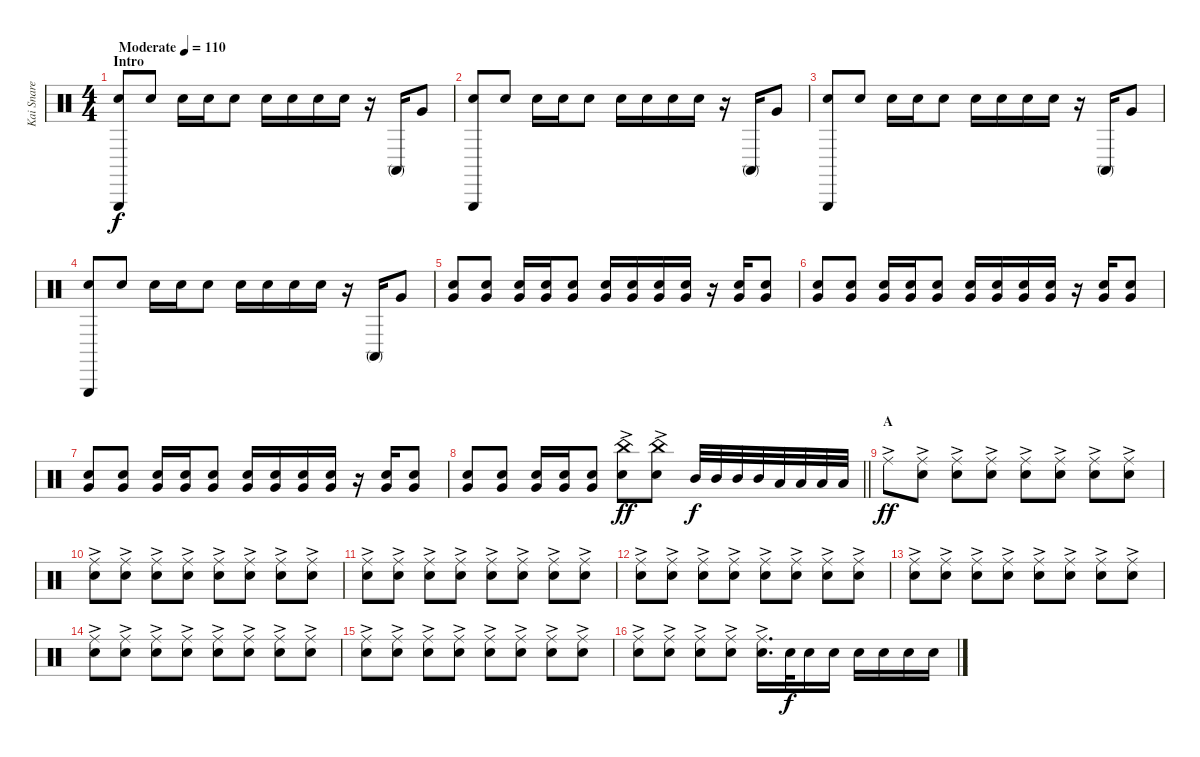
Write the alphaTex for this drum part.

\track ("Kai Snare" "Kai Snare") {instrument percussion}
\staff {score}
\articulation defaults
\ts (4 4)
\section ("" "Intro")
\tempo (110 "Moderate")
\clef neutral
\ks c
("Triangle (hit)" "Snare (hit) 2").8{dy f} "Snare (hit) 2".8 "Snare (hit) 2".16 "Snare (hit) 2".16 "Snare (hit) 2".8 "Snare (hit) 2".16 "Snare (hit) 2".16 "Snare (hit) 2".16 "Snare (hit) 2".16 r.16 "Conga high (mute)".16 "Very Low Tom (hit)".8 |
("Triangle (hit)" "Snare (hit) 2").8 "Snare (hit) 2".8 "Snare (hit) 2".16 "Snare (hit) 2".16 "Snare (hit) 2".8 "Snare (hit) 2".16 "Snare (hit) 2".16 "Snare (hit) 2".16 "Snare (hit) 2".16 r.16 "Conga high (mute)".16 "Very Low Tom (hit)".8 |
("Triangle (hit)" "Snare (hit) 2").8 "Snare (hit) 2".8 "Snare (hit) 2".16 "Snare (hit) 2".16 "Snare (hit) 2".8 "Snare (hit) 2".16 "Snare (hit) 2".16 "Snare (hit) 2".16 "Snare (hit) 2".16 r.16 "Conga high (mute)".16 "Very Low Tom (hit)".8 |
("Triangle (hit)" "Snare (hit) 2").8 "Snare (hit) 2".8 "Snare (hit) 2".16 "Snare (hit) 2".16 "Snare (hit) 2".8 "Snare (hit) 2".16 "Snare (hit) 2".16 "Snare (hit) 2".16 "Snare (hit) 2".16 r.16 "Conga high (mute)".16 "Very Low Tom (hit)".8 |
("Very Low Tom (hit)" "Hand Clap (hit)").8 ("Very Low Tom (hit)" "Hand Clap (hit)").8 ("Very Low Tom (hit)" "Hand Clap (hit)").16 ("Very Low Tom (hit)" "Hand Clap (hit)").16 ("Very Low Tom (hit)" "Hand Clap (hit)").8 ("Very Low Tom (hit)" "Hand Clap (hit)").16 ("Very Low Tom (hit)" "Hand Clap (hit)").16 ("Very Low Tom (hit)" "Hand Clap (hit)").16 ("Very Low Tom (hit)" "Hand Clap (hit)").16 r.16 ("Very Low Tom (hit)" "Hand Clap (hit)").16 ("Very Low Tom (hit)" "Hand Clap (hit)").8 |
("Very Low Tom (hit)" "Hand Clap (hit)").8 ("Very Low Tom (hit)" "Hand Clap (hit)").8 ("Very Low Tom (hit)" "Hand Clap (hit)").16 ("Very Low Tom (hit)" "Hand Clap (hit)").16 ("Very Low Tom (hit)" "Hand Clap (hit)").8 ("Very Low Tom (hit)" "Hand Clap (hit)").16 ("Very Low Tom (hit)" "Hand Clap (hit)").16 ("Very Low Tom (hit)" "Hand Clap (hit)").16 ("Very Low Tom (hit)" "Hand Clap (hit)").16 r.16 ("Very Low Tom (hit)" "Hand Clap (hit)").16 ("Very Low Tom (hit)" "Hand Clap (hit)").8 |
("Very Low Tom (hit)" "Hand Clap (hit)").8 ("Very Low Tom (hit)" "Hand Clap (hit)").8 ("Very Low Tom (hit)" "Hand Clap (hit)").16 ("Very Low Tom (hit)" "Hand Clap (hit)").16 ("Very Low Tom (hit)" "Hand Clap (hit)").8 ("Very Low Tom (hit)" "Hand Clap (hit)").16 ("Very Low Tom (hit)" "Hand Clap (hit)").16 ("Very Low Tom (hit)" "Hand Clap (hit)").16 ("Very Low Tom (hit)" "Hand Clap (hit)").16 r.16 ("Very Low Tom (hit)" "Hand Clap (hit)").16 ("Very Low Tom (hit)" "Hand Clap (hit)").8 |
\barLineRight lightlight
("Very Low Tom (hit)" "Hand Clap (hit)").8 ("Very Low Tom (hit)" "Hand Clap (hit)").8 ("Very Low Tom (hit)" "Hand Clap (hit)").16 ("Very Low Tom (hit)" "Hand Clap (hit)").16 ("Very Low Tom (hit)" "Hand Clap (hit)").8 ("China (hit)"{ac} "Snare (hit) 2").8{dy ff} ("China (hit)"{ac} "Snare (hit) 2").8 "Mid Tom (hit)".32{dy f} "Mid Tom (hit)".32 "Mid Tom (hit)".32 "Mid Tom (hit)".32 "Low Tom (hit)".32 "Low Tom (hit)".32 "Low Tom (hit)".32 "Low Tom (hit)".32 |
\section ("" "A")
"Ride (middle)"{ac}.8{dy ff} ("Ride (middle)"{ac} "Snare (hit) 2").8 ("Ride (middle)"{ac} "Snare (hit) 2").8 ("Ride (middle)"{ac} "Snare (hit) 2").8 ("Ride (middle)"{ac} "Snare (hit) 2").8 ("Ride (middle)"{ac} "Snare (hit) 2").8 ("Ride (middle)"{ac} "Snare (hit) 2").8 ("Ride (middle)"{ac} "Snare (hit) 2").8 |
("Ride (middle)"{ac} "Snare (hit) 2").8 ("Ride (middle)"{ac} "Snare (hit) 2").8 ("Ride (middle)"{ac} "Snare (hit) 2").8 ("Ride (middle)"{ac} "Snare (hit) 2").8 ("Ride (middle)"{ac} "Snare (hit) 2").8 ("Ride (middle)"{ac} "Snare (hit) 2").8 ("Ride (middle)"{ac} "Snare (hit) 2").8 ("Ride (middle)"{ac} "Snare (hit) 2").8 |
("Ride (middle)"{ac} "Snare (hit) 2").8 ("Ride (middle)"{ac} "Snare (hit) 2").8 ("Ride (middle)"{ac} "Snare (hit) 2").8 ("Ride (middle)"{ac} "Snare (hit) 2").8 ("Ride (middle)"{ac} "Snare (hit) 2").8 ("Ride (middle)"{ac} "Snare (hit) 2").8 ("Ride (middle)"{ac} "Snare (hit) 2").8 ("Ride (middle)"{ac} "Snare (hit) 2").8 |
("Ride (middle)"{ac} "Snare (hit) 2").8 ("Ride (middle)"{ac} "Snare (hit) 2").8 ("Ride (middle)"{ac} "Snare (hit) 2").8 ("Ride (middle)"{ac} "Snare (hit) 2").8 ("Ride (middle)"{ac} "Snare (hit) 2").8 ("Ride (middle)"{ac} "Snare (hit) 2").8 ("Ride (middle)"{ac} "Snare (hit) 2").8 ("Ride (middle)"{ac} "Snare (hit) 2").8 |
("Ride (middle)"{ac} "Snare (hit) 2").8 ("Ride (middle)"{ac} "Snare (hit) 2").8 ("Ride (middle)"{ac} "Snare (hit) 2").8 ("Ride (middle)"{ac} "Snare (hit) 2").8 ("Ride (middle)"{ac} "Snare (hit) 2").8 ("Ride (middle)"{ac} "Snare (hit) 2").8 ("Ride (middle)"{ac} "Snare (hit) 2").8 ("Ride (middle)"{ac} "Snare (hit) 2").8 |
("Ride (middle)"{ac} "Snare (hit) 2").8 ("Ride (middle)"{ac} "Snare (hit) 2").8 ("Ride (middle)"{ac} "Snare (hit) 2").8 ("Ride (middle)"{ac} "Snare (hit) 2").8 ("Ride (middle)"{ac} "Snare (hit) 2").8 ("Ride (middle)"{ac} "Snare (hit) 2").8 ("Ride (middle)"{ac} "Snare (hit) 2").8 ("Ride (middle)"{ac} "Snare (hit) 2").8 |
("Ride (middle)"{ac} "Snare (hit) 2").8 ("Ride (middle)"{ac} "Snare (hit) 2").8 ("Ride (middle)"{ac} "Snare (hit) 2").8 ("Ride (middle)"{ac} "Snare (hit) 2").8 ("Ride (middle)"{ac} "Snare (hit) 2").8 ("Ride (middle)"{ac} "Snare (hit) 2").8 ("Ride (middle)"{ac} "Snare (hit) 2").8 ("Ride (middle)"{ac} "Snare (hit) 2").8 |
("Ride (middle)"{ac} "Snare (hit) 2").8 ("Ride (middle)"{ac} "Snare (hit) 2").8 ("Ride (middle)"{ac} "Snare (hit) 2").8 ("Ride (middle)"{ac} "Snare (hit) 2").8 ("Ride (middle)"{ac} "Snare (hit) 2").16{d} "Snare (hit) 2".32{dy f} "Snare (hit) 2".16 "Snare (hit) 2".16 "Snare (hit) 2".16 "Snare (hit) 2".16 "Snare (hit) 2".16 "Snare (hit) 2".16
